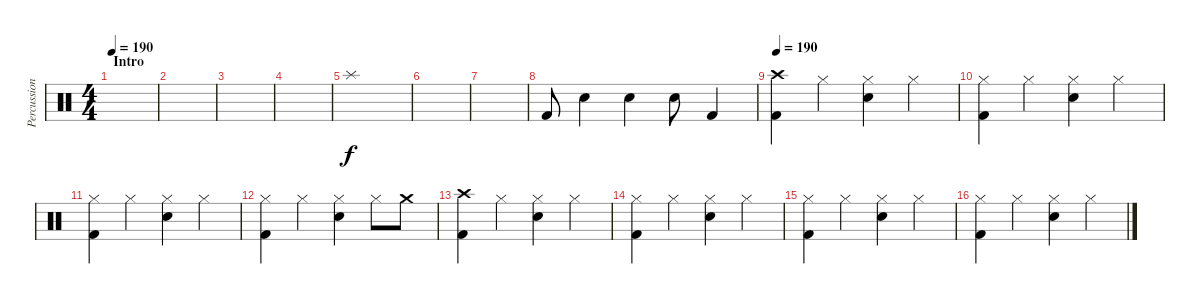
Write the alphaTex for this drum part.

\track ("Percussion" "Percussion") {instrument percussion}
\staff {score}
\articulation defaults
\ts (4 4)
\section ("" "Intro")
\tempo 190
\clef neutral
\ks c
|
|
|
|
"Splash (hit)".1 |
|
|
"Kick (hit) 2".8 "Electric Snare (hit)".4 "Electric Snare (hit)".4 "Electric Snare (hit)".8 "Kick (hit) 2".4 |
\tempo 190
("Crash high (hit)" "Kick (hit) 2").4 "Hi-Hat (closed)".4 ("Hi-Hat (closed)" "Electric Snare (hit)").4 "Hi-Hat (closed)".4 |
("Hi-Hat (closed)" "Kick (hit) 2").4 "Hi-Hat (closed)".4 ("Hi-Hat (closed)" "Electric Snare (hit)").4 "Hi-Hat (closed)".4 |
("Hi-Hat (closed)" "Kick (hit) 2").4 "Hi-Hat (closed)".4 ("Hi-Hat (closed)" "Electric Snare (hit)").4 "Hi-Hat (closed)".4 |
("Hi-Hat (closed)" "Kick (hit) 2").4 "Hi-Hat (closed)".4 ("Hi-Hat (closed)" "Electric Snare (hit)").4 "Hi-Hat (closed)".8 "Crash medium (hit)".8 |
("Crash high (hit)" "Kick (hit) 2").4 "Hi-Hat (closed)".4 ("Hi-Hat (closed)" "Electric Snare (hit)").4 "Hi-Hat (closed)".4 |
("Hi-Hat (closed)" "Kick (hit) 2").4 "Hi-Hat (closed)".4 ("Hi-Hat (closed)" "Electric Snare (hit)").4 "Hi-Hat (closed)".4 |
("Hi-Hat (closed)" "Kick (hit) 2").4 "Hi-Hat (closed)".4 ("Hi-Hat (closed)" "Electric Snare (hit)").4 "Hi-Hat (closed)".4 |
("Hi-Hat (closed)" "Kick (hit) 2").4 "Hi-Hat (closed)".4 ("Hi-Hat (closed)" "Electric Snare (hit)").4 "Hi-Hat (closed)".4
